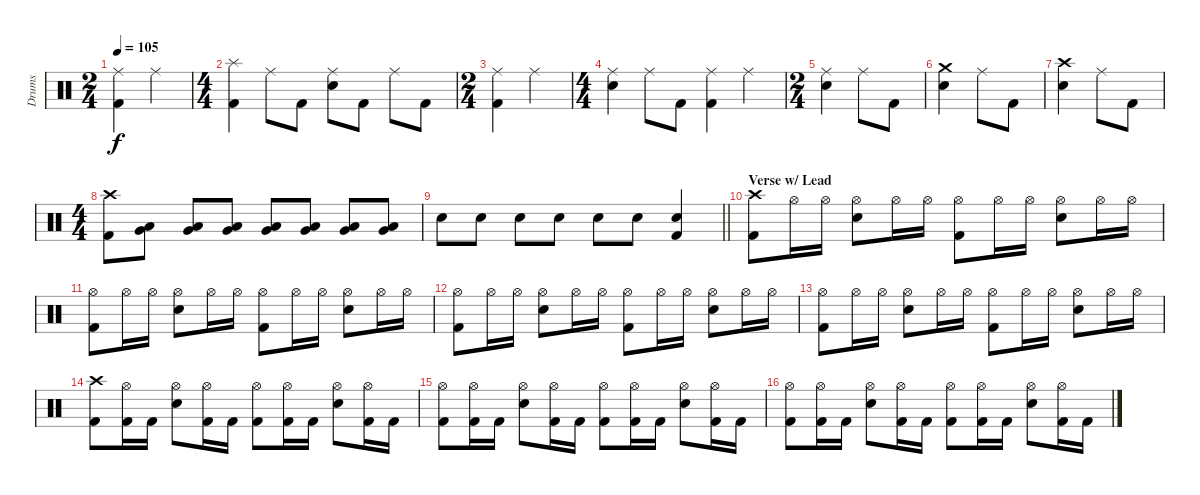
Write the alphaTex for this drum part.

\track ("Drums" "Drums") {instrument percussion}
\staff {score}
\articulation defaults
\ts (2 4)
\tempo 105
\clef neutral
\ks c
("Ride (middle)" "Kick (hit) 2").4{dy f} "Ride (middle)".4 |
\ts (4 4)
("Splash (hit)" "Kick (hit) 2").4 "Ride (middle)".8 "Kick (hit) 2".8 ("Ride (middle)" "Electric Snare (hit)").8 "Kick (hit) 2".8 "Ride (middle)".8 "Kick (hit) 2".8 |
\ts (2 4)
("Ride (middle)" "Kick (hit) 2").4 "Ride (middle)".4 |
\ts (4 4)
("Ride (middle)" "Electric Snare (hit)").4 "Ride (middle)".8 "Kick (hit) 2".8 ("Ride (middle)" "Kick (hit) 2").4 "Ride (middle)".4 |
\ts (2 4)
("Ride (middle)" "Electric Snare (hit)").4 "Ride (middle)".8 "Kick (hit) 2".8 |
("Crash medium (hit)" "Electric Snare (hit)").4 "Ride (middle)".8 "Kick (hit) 2".8 |
("Crash high (hit)" "Electric Snare (hit)").4 "Ride (middle)".8 "Kick (hit) 2".8 |
\ts (4 4)
("Crash high (hit)" "Kick (hit) 2").8 ("Very Low Tom (hit)" "Low Floor Tom (hit)").8 ("Very Low Tom (hit)" "Low Floor Tom (hit)").8 ("Very Low Tom (hit)" "Low Floor Tom (hit)").8 ("Very Low Tom (hit)" "Low Floor Tom (hit)").8 ("Very Low Tom (hit)" "Low Floor Tom (hit)").8 ("Very Low Tom (hit)" "Low Floor Tom (hit)").8 ("Very Low Tom (hit)" "Low Floor Tom (hit)").8 |
\barLineRight lightlight "Electric Snare (hit)".8 "Electric Snare (hit)".8 "Electric Snare (hit)".8 "Electric Snare (hit)".8 "Electric Snare (hit)".8 "Electric Snare (hit)".8
("Electric Snare (hit)" "Kick (hit) 2").4 |
\section ("" "Verse w/ Lead")
("Crash high (hit)" "Kick (hit) 2").8 "Hi-Hat (open)".16 "Hi-Hat (open)".16 ("Hi-Hat (open)" "Electric Snare (hit)").8 "Hi-Hat (open)".16 "Hi-Hat (open)".16 ("Hi-Hat (open)" "Kick (hit) 2").8 "Hi-Hat (open)".16 "Hi-Hat (open)".16 ("Hi-Hat (open)" "Electric Snare (hit)").8 "Hi-Hat (open)".16 "Hi-Hat (open)".16 |
("Hi-Hat (open)" "Kick (hit) 2").8 "Hi-Hat (open)".16 "Hi-Hat (open)".16 ("Hi-Hat (open)" "Electric Snare (hit)").8 "Hi-Hat (open)".16 "Hi-Hat (open)".16 ("Hi-Hat (open)" "Kick (hit) 2").8 "Hi-Hat (open)".16 "Hi-Hat (open)".16 ("Hi-Hat (open)" "Electric Snare (hit)").8 "Hi-Hat (open)".16 "Hi-Hat (open)".16 |
("Hi-Hat (open)" "Kick (hit) 2").8 "Hi-Hat (open)".16 "Hi-Hat (open)".16 ("Hi-Hat (open)" "Electric Snare (hit)").8 "Hi-Hat (open)".16 "Hi-Hat (open)".16 ("Hi-Hat (open)" "Kick (hit) 2").8 "Hi-Hat (open)".16 "Hi-Hat (open)".16 ("Hi-Hat (open)" "Electric Snare (hit)").8 "Hi-Hat (open)".16 "Hi-Hat (open)".16 |
("Hi-Hat (open)" "Kick (hit) 2").8 "Hi-Hat (open)".16 "Hi-Hat (open)".16 ("Hi-Hat (open)" "Electric Snare (hit)").8 "Hi-Hat (open)".16 "Hi-Hat (open)".16 ("Hi-Hat (open)" "Kick (hit) 2").8 "Hi-Hat (open)".16 "Hi-Hat (open)".16 ("Hi-Hat (open)" "Electric Snare (hit)").8 "Hi-Hat (open)".16 "Hi-Hat (open)".16 |
("Crash high (hit)" "Kick (hit) 2").8 ("Hi-Hat (open)" "Kick (hit) 2").16 "Kick (hit) 2".16 ("Hi-Hat (open)" "Electric Snare (hit)").8 ("Hi-Hat (open)" "Kick (hit) 2").16 "Kick (hit) 2".16 ("Hi-Hat (open)" "Kick (hit) 2").8 ("Hi-Hat (open)" "Kick (hit) 2").16 "Kick (hit) 2".16 ("Hi-Hat (open)" "Electric Snare (hit)").8 ("Hi-Hat (open)" "Kick (hit) 2").16 "Kick (hit) 2".16 |
("Hi-Hat (open)" "Kick (hit) 2").8 ("Hi-Hat (open)" "Kick (hit) 2").16 "Kick (hit) 2".16 ("Hi-Hat (open)" "Electric Snare (hit)").8 ("Hi-Hat (open)" "Kick (hit) 2").16 "Kick (hit) 2".16 ("Hi-Hat (open)" "Kick (hit) 2").8 ("Hi-Hat (open)" "Kick (hit) 2").16 "Kick (hit) 2".16 ("Hi-Hat (open)" "Electric Snare (hit)").8 ("Hi-Hat (open)" "Kick (hit) 2").16 "Kick (hit) 2".16 |
("Hi-Hat (open)" "Kick (hit) 2").8 ("Hi-Hat (open)" "Kick (hit) 2").16 "Kick (hit) 2".16 ("Hi-Hat (open)" "Electric Snare (hit)").8 ("Hi-Hat (open)" "Kick (hit) 2").16 "Kick (hit) 2".16 ("Hi-Hat (open)" "Kick (hit) 2").8 ("Hi-Hat (open)" "Kick (hit) 2").16 "Kick (hit) 2".16 ("Hi-Hat (open)" "Electric Snare (hit)").8 ("Hi-Hat (open)" "Kick (hit) 2").16 "Kick (hit) 2".16
